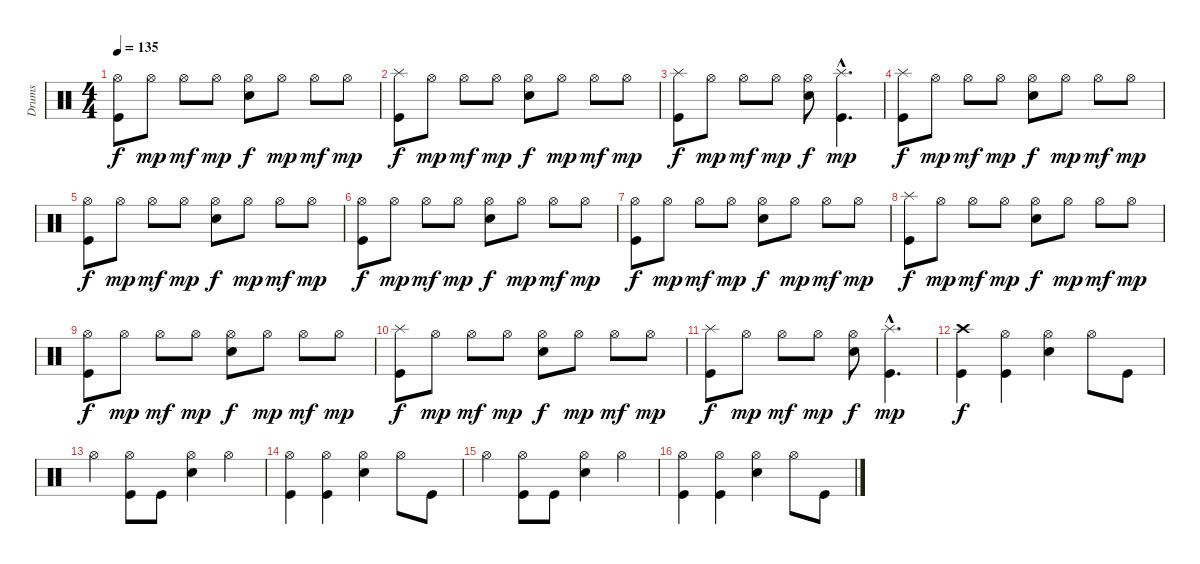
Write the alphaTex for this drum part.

\track ("Drums" "Drums") {instrument percussion}
\staff {score}
\articulation defaults
\ts (4 4)
\tempo 135
\clef neutral
\ks c
("Hi-Hat (open)" "Kick (hit)").8{dy f} "Hi-Hat (open)".8{dy mp} "Hi-Hat (open)".8{dy mf} "Hi-Hat (open)".8{dy mp} ("Hi-Hat (open)" "Snare (hit) 2").8{dy f} "Hi-Hat (open)".8{dy mp} "Hi-Hat (open)".8{dy mf} "Hi-Hat (open)".8{dy mp} |
("Splash (hit)" "Kick (hit)").8{dy f} "Hi-Hat (open)".8{dy mp} "Hi-Hat (open)".8{dy mf} "Hi-Hat (open)".8{dy mp} ("Hi-Hat (open)" "Snare (hit) 2").8{dy f} "Hi-Hat (open)".8{dy mp} "Hi-Hat (open)".8{dy mf} "Hi-Hat (open)".8{dy mp} |
("Splash (hit)" "Kick (hit)").8{dy f} "Hi-Hat (open)".8{dy mp} "Hi-Hat (open)".8{dy mf} "Hi-Hat (open)".8{dy mp} ("Hi-Hat (open)" "Snare (hit) 2").8{dy f} ("Splash (hit)"{hac} "Kick (hit)"{hac}).4{d dy mp} |
("Splash (hit)" "Kick (hit)").8{dy f} "Hi-Hat (open)".8{dy mp} "Hi-Hat (open)".8{dy mf} "Hi-Hat (open)".8{dy mp} ("Hi-Hat (open)" "Snare (hit) 2").8{dy f} "Hi-Hat (open)".8{dy mp} "Hi-Hat (open)".8{dy mf} "Hi-Hat (open)".8{dy mp} |
("Hi-Hat (open)" "Kick (hit)").8{dy f} "Hi-Hat (open)".8{dy mp} "Hi-Hat (open)".8{dy mf} "Hi-Hat (open)".8{dy mp} ("Hi-Hat (open)" "Snare (hit) 2").8{dy f} "Hi-Hat (open)".8{dy mp} "Hi-Hat (open)".8{dy mf} "Hi-Hat (open)".8{dy mp} |
("Hi-Hat (open)" "Kick (hit)").8{dy f} "Hi-Hat (open)".8{dy mp} "Hi-Hat (open)".8{dy mf} "Hi-Hat (open)".8{dy mp} ("Hi-Hat (open)" "Snare (hit) 2").8{dy f} "Hi-Hat (open)".8{dy mp} "Hi-Hat (open)".8{dy mf} "Hi-Hat (open)".8{dy mp} |
("Hi-Hat (open)" "Kick (hit)").8{dy f} "Hi-Hat (open)".8{dy mp} "Hi-Hat (open)".8{dy mf} "Hi-Hat (open)".8{dy mp} ("Hi-Hat (open)" "Snare (hit) 2").8{dy f} "Hi-Hat (open)".8{dy mp} "Hi-Hat (open)".8{dy mf} "Hi-Hat (open)".8{dy mp} |
("Splash (hit)" "Kick (hit)").8{dy f} "Hi-Hat (open)".8{dy mp} "Hi-Hat (open)".8{dy mf} "Hi-Hat (open)".8{dy mp} ("Hi-Hat (open)" "Snare (hit) 2").8{dy f} "Hi-Hat (open)".8{dy mp} "Hi-Hat (open)".8{dy mf} "Hi-Hat (open)".8{dy mp} |
("Hi-Hat (open)" "Kick (hit)").8{dy f} "Hi-Hat (open)".8{dy mp} "Hi-Hat (open)".8{dy mf} "Hi-Hat (open)".8{dy mp} ("Hi-Hat (open)" "Snare (hit) 2").8{dy f} "Hi-Hat (open)".8{dy mp} "Hi-Hat (open)".8{dy mf} "Hi-Hat (open)".8{dy mp} |
("Splash (hit)" "Kick (hit)").8{dy f} "Hi-Hat (open)".8{dy mp} "Hi-Hat (open)".8{dy mf} "Hi-Hat (open)".8{dy mp} ("Hi-Hat (open)" "Snare (hit) 2").8{dy f} "Hi-Hat (open)".8{dy mp} "Hi-Hat (open)".8{dy mf} "Hi-Hat (open)".8{dy mp} |
("Splash (hit)" "Kick (hit)").8{dy f} "Hi-Hat (open)".8{dy mp} "Hi-Hat (open)".8{dy mf} "Hi-Hat (open)".8{dy mp} ("Hi-Hat (open)" "Snare (hit) 2").8{dy f} ("Splash (hit)"{hac} "Kick (hit)"{hac}).4{d dy mp} |
("Crash high (hit)" "Kick (hit)").4{dy f} ("Hi-Hat (open)" "Kick (hit)").4 ("Hi-Hat (open)" "Snare (hit) 2").4 "Hi-Hat (open)".8 "Kick (hit)".8 |
"Hi-Hat (open)".4 ("Hi-Hat (open)" "Kick (hit)").8 "Kick (hit)".8 ("Hi-Hat (open)" "Snare (hit) 2").4 "Hi-Hat (open)".4 |
("Hi-Hat (open)" "Kick (hit)").4 ("Hi-Hat (open)" "Kick (hit)").4 ("Hi-Hat (open)" "Snare (hit) 2").4 "Hi-Hat (open)".8 "Kick (hit)".8 |
"Hi-Hat (open)".4 ("Hi-Hat (open)" "Kick (hit)").8 "Kick (hit)".8 ("Hi-Hat (open)" "Snare (hit) 2").4 "Hi-Hat (open)".4 |
("Hi-Hat (open)" "Kick (hit)").4 ("Hi-Hat (open)" "Kick (hit)").4 ("Hi-Hat (open)" "Snare (hit) 2").4 "Hi-Hat (open)".8 "Kick (hit)".8
